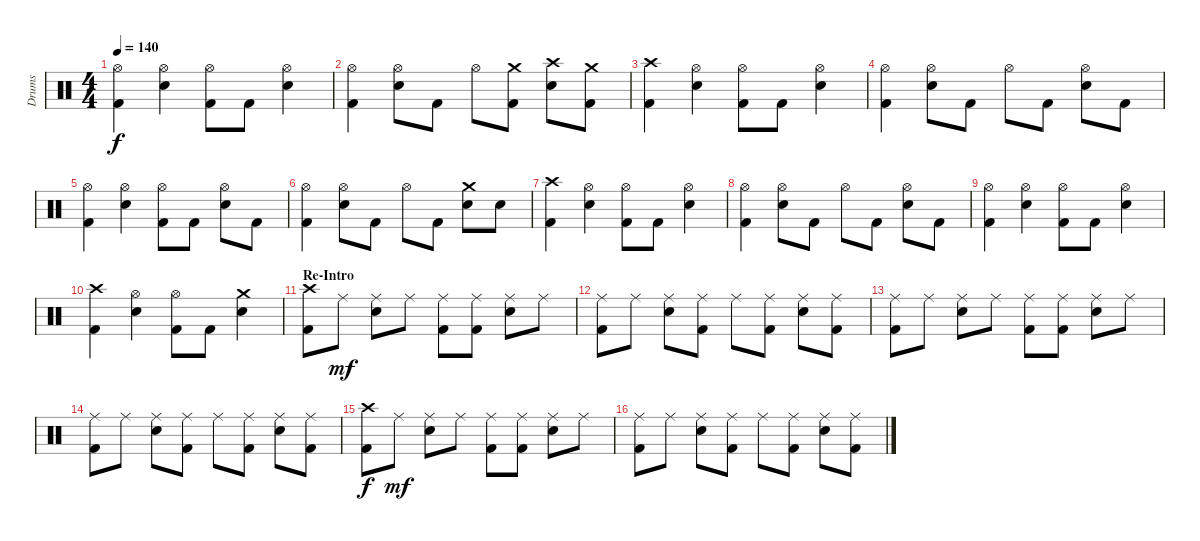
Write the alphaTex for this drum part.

\track ("Drums" "Drums") {instrument percussion}
\staff {score}
\articulation defaults
\ts (4 4)
\tempo 140
\clef neutral
\ks c
("Hi-Hat (open)" "Kick (hit) 2").4{dy f} ("Hi-Hat (open)" "Electric Snare (hit)").4 ("Hi-Hat (open)" "Kick (hit) 2").8 "Kick (hit) 2".8 ("Hi-Hat (open)" "Electric Snare (hit)").4 |
("Hi-Hat (open)" "Kick (hit) 2").4 ("Hi-Hat (open)" "Electric Snare (hit)").8 "Kick (hit) 2".8 "Hi-Hat (open)".8 ("Crash medium (hit)" "Kick (hit) 2").8 ("Crash high (hit)" "Electric Snare (hit)").8 ("Crash medium (hit)" "Kick (hit) 2").8 |
("Crash high (hit)" "Kick (hit) 2").4 ("Hi-Hat (open)" "Electric Snare (hit)").4 ("Hi-Hat (open)" "Kick (hit) 2").8 "Kick (hit) 2".8 ("Hi-Hat (open)" "Electric Snare (hit)").4 |
("Hi-Hat (open)" "Kick (hit) 2").4 ("Hi-Hat (open)" "Electric Snare (hit)").8 "Kick (hit) 2".8 "Hi-Hat (open)".8 "Kick (hit) 2".8 ("Hi-Hat (open)" "Electric Snare (hit)").8 "Kick (hit) 2".8 |
("Hi-Hat (open)" "Kick (hit) 2").4 ("Hi-Hat (open)" "Electric Snare (hit)").4 ("Hi-Hat (open)" "Kick (hit) 2").8 "Kick (hit) 2".8 ("Hi-Hat (open)" "Electric Snare (hit)").8 "Kick (hit) 2".8 |
("Hi-Hat (open)" "Kick (hit) 2").4 ("Hi-Hat (open)" "Electric Snare (hit)").8 "Kick (hit) 2".8 "Hi-Hat (open)".8 "Kick (hit) 2".8 ("Crash medium (hit)" "Electric Snare (hit)").8 "Electric Snare (hit)".8 |
("Crash high (hit)" "Kick (hit) 2").4 ("Hi-Hat (open)" "Electric Snare (hit)").4 ("Hi-Hat (open)" "Kick (hit) 2").8 "Kick (hit) 2".8 ("Hi-Hat (open)" "Electric Snare (hit)").4 |
("Hi-Hat (open)" "Kick (hit) 2").4 ("Hi-Hat (open)" "Electric Snare (hit)").8 "Kick (hit) 2".8 "Hi-Hat (open)".8 "Kick (hit) 2".8 ("Hi-Hat (open)" "Electric Snare (hit)").8 "Kick (hit) 2".8 |
("Hi-Hat (open)" "Kick (hit) 2").4 ("Hi-Hat (open)" "Electric Snare (hit)").4 ("Hi-Hat (open)" "Kick (hit) 2").8 "Kick (hit) 2".8 ("Hi-Hat (open)" "Electric Snare (hit)").4 |
("Crash high (hit)" "Kick (hit) 2").4 ("Hi-Hat (open)" "Electric Snare (hit)").4 ("Hi-Hat (open)" "Kick (hit) 2").8 "Kick (hit) 2".8 ("Crash medium (hit)" "Electric Snare (hit)").4 |
\section ("" "Re-Intro")
("Crash high (hit)" "Kick (hit) 2").8 "Ride (middle)".8{dy mf} ("Ride (middle)" "Electric Snare (hit)").8 "Ride (middle)".8 ("Ride (middle)" "Kick (hit) 2").8 ("Ride (middle)" "Kick (hit) 2").8 ("Ride (middle)" "Electric Snare (hit)").8 "Ride (middle)".8 |
("Ride (middle)" "Kick (hit) 2").8 "Ride (middle)".8 ("Ride (middle)" "Electric Snare (hit)").8 ("Ride (middle)" "Kick (hit) 2").8 "Ride (middle)".8 ("Ride (middle)" "Kick (hit) 2").8 ("Ride (middle)" "Electric Snare (hit)").8 ("Ride (middle)" "Kick (hit) 2").8 |
("Ride (middle)" "Kick (hit) 2").8 "Ride (middle)".8 ("Ride (middle)" "Electric Snare (hit)").8 "Ride (middle)".8 ("Ride (middle)" "Kick (hit) 2").8 ("Ride (middle)" "Kick (hit) 2").8 ("Ride (middle)" "Electric Snare (hit)").8 "Ride (middle)".8 |
("Ride (middle)" "Kick (hit) 2").8 "Ride (middle)".8 ("Ride (middle)" "Electric Snare (hit)").8 ("Ride (middle)" "Kick (hit) 2").8 "Ride (middle)".8 ("Ride (middle)" "Kick (hit) 2").8 ("Ride (middle)" "Electric Snare (hit)").8 ("Ride (middle)" "Kick (hit) 2").8 |
("Crash high (hit)" "Kick (hit) 2").8{dy f} "Ride (middle)".8{dy mf} ("Ride (middle)" "Electric Snare (hit)").8 "Ride (middle)".8 ("Ride (middle)" "Kick (hit) 2").8 ("Ride (middle)" "Kick (hit) 2").8 ("Ride (middle)" "Electric Snare (hit)").8 "Ride (middle)".8 |
("Ride (middle)" "Kick (hit) 2").8 "Ride (middle)".8 ("Ride (middle)" "Electric Snare (hit)").8 ("Ride (middle)" "Kick (hit) 2").8 "Ride (middle)".8 ("Ride (middle)" "Kick (hit) 2").8 ("Ride (middle)" "Electric Snare (hit)").8 ("Ride (middle)" "Kick (hit) 2").8
